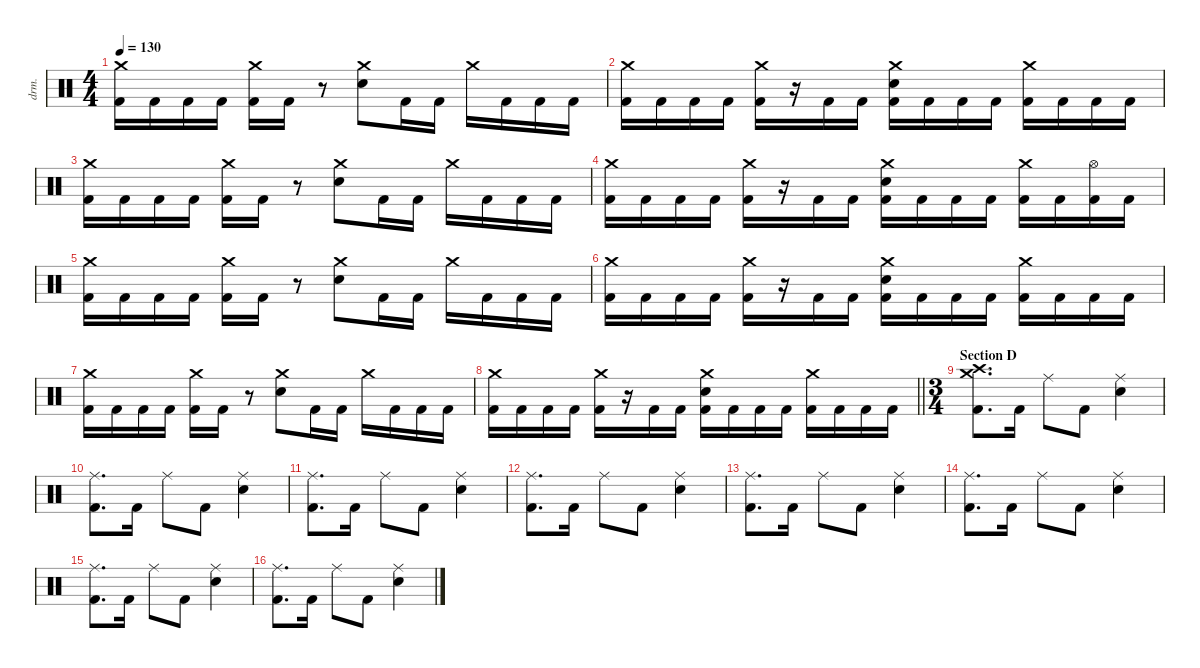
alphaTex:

\defaultSystemsLayout 4
\hideDynamics
\bracketExtendMode nobrackets
\otherSystemsTrackNameOrientation horizontal
\track ("Percussion" "drm.") {instrument percussion}
\staff {score}
\articulation defaults
\ts (4 4)
\tempo 130
\clef neutral
\ks c
("Crash medium (hit)" "Kick (hit) 2").16{dy f beam Down} "Kick (hit) 2".16{beam Down} "Kick (hit) 2".16{beam Down} "Kick (hit) 2".16{beam Down} ("Crash medium (hit)" "Kick (hit) 2").16{beam Down} "Kick (hit) 2".16{beam Down} r.8{beam Down} ("Crash medium (hit)" "Snare (hit) 2").8{beam Down} "Kick (hit) 2".16{beam Down} "Kick (hit) 2".16{beam Down} "Crash medium (hit)".16{beam Down} "Kick (hit) 2".16{beam Down} "Kick (hit) 2".16{beam Down} "Kick (hit) 2".16{beam Down} |
("Crash medium (hit)" "Kick (hit) 2").16{beam Down} "Kick (hit) 2".16{beam Down} "Kick (hit) 2".16{beam Down} "Kick (hit) 2".16{beam Down} ("Crash medium (hit)" "Kick (hit) 2").16{beam Down} r.16{beam Down} "Kick (hit) 2".16{beam Down} "Kick (hit) 2".16{beam Down} ("Crash medium (hit)" "Snare (hit) 2" "Kick (hit) 2").16{beam Down} "Kick (hit) 2".16{beam Down} "Kick (hit) 2".16{beam Down} "Kick (hit) 2".16{beam Down} ("Crash medium (hit)" "Kick (hit) 2").16{beam Down} "Kick (hit) 2".16{beam Down} "Kick (hit) 2".16{beam Down} "Kick (hit) 2".16{beam Down} |
("Crash medium (hit)" "Kick (hit) 2").16{beam Down} "Kick (hit) 2".16{beam Down} "Kick (hit) 2".16{beam Down} "Kick (hit) 2".16{beam Down} ("Crash medium (hit)" "Kick (hit) 2").16{beam Down} "Kick (hit) 2".16{beam Down} r.8{beam Down} ("Crash medium (hit)" "Snare (hit) 2").8{beam Down} "Kick (hit) 2".16{beam Down} "Kick (hit) 2".16{beam Down} "Crash medium (hit)".16{beam Down} "Kick (hit) 2".16{beam Down} "Kick (hit) 2".16{beam Down} "Kick (hit) 2".16{beam Down} |
("Crash medium (hit)" "Kick (hit) 2").16{beam Down} "Kick (hit) 2".16{beam Down} "Kick (hit) 2".16{beam Down} "Kick (hit) 2".16{beam Down} ("Crash medium (hit)" "Kick (hit) 2").16{beam Down} r.16{beam Down} "Kick (hit) 2".16{beam Down} "Kick (hit) 2".16{beam Down} ("Crash medium (hit)" "Snare (hit) 2" "Kick (hit) 2").16{beam Down} "Kick (hit) 2".16{beam Down} "Kick (hit) 2".16{beam Down} "Kick (hit) 2".16{beam Down} ("Crash medium (hit)" "Kick (hit) 2").16{beam Down} "Kick (hit) 2".16{beam Down} ("Hi-Hat (open)" "Kick (hit) 2").16{beam Down} "Kick (hit) 2".16{beam Down} |
("Crash medium (hit)" "Kick (hit) 2").16{beam Down} "Kick (hit) 2".16{beam Down} "Kick (hit) 2".16{beam Down} "Kick (hit) 2".16{beam Down} ("Crash medium (hit)" "Kick (hit) 2").16{beam Down} "Kick (hit) 2".16{beam Down} r.8{beam Down} ("Crash medium (hit)" "Snare (hit) 2").8{beam Down} "Kick (hit) 2".16{beam Down} "Kick (hit) 2".16{beam Down} "Crash medium (hit)".16{beam Down} "Kick (hit) 2".16{beam Down} "Kick (hit) 2".16{beam Down} "Kick (hit) 2".16{beam Down} |
("Crash medium (hit)" "Kick (hit) 2").16{beam Down} "Kick (hit) 2".16{beam Down} "Kick (hit) 2".16{beam Down} "Kick (hit) 2".16{beam Down} ("Crash medium (hit)" "Kick (hit) 2").16{beam Down} r.16{beam Down} "Kick (hit) 2".16{beam Down} "Kick (hit) 2".16{beam Down} ("Crash medium (hit)" "Snare (hit) 2" "Kick (hit) 2").16{beam Down} "Kick (hit) 2".16{beam Down} "Kick (hit) 2".16{beam Down} "Kick (hit) 2".16{beam Down} ("Crash medium (hit)" "Kick (hit) 2").16{beam Down} "Kick (hit) 2".16{beam Down} "Kick (hit) 2".16{beam Down} "Kick (hit) 2".16{beam Down} |
("Crash medium (hit)" "Kick (hit) 2").16{beam Down} "Kick (hit) 2".16{beam Down} "Kick (hit) 2".16{beam Down} "Kick (hit) 2".16{beam Down} ("Crash medium (hit)" "Kick (hit) 2").16{beam Down} "Kick (hit) 2".16{beam Down} r.8{beam Down} ("Crash medium (hit)" "Snare (hit) 2").8{beam Down} "Kick (hit) 2".16{beam Down} "Kick (hit) 2".16{beam Down} "Crash medium (hit)".16{beam Down} "Kick (hit) 2".16{beam Down} "Kick (hit) 2".16{beam Down} "Kick (hit) 2".16{beam Down} |
\barLineRight lightlight
("Crash medium (hit)" "Kick (hit) 2").16{beam Down} "Kick (hit) 2".16{beam Down} "Kick (hit) 2".16{beam Down} "Kick (hit) 2".16{beam Down} ("Crash medium (hit)" "Kick (hit) 2").16{beam Down} r.16{beam Down} "Kick (hit) 2".16{beam Down} "Kick (hit) 2".16{beam Down} ("Crash medium (hit)" "Snare (hit) 2" "Kick (hit) 2").16{beam Down} "Kick (hit) 2".16{beam Down} "Kick (hit) 2".16{beam Down} "Kick (hit) 2".16{beam Down} ("Crash medium (hit)" "Kick (hit) 2").16{beam Down} "Kick (hit) 2".16{beam Down} "Kick (hit) 2".16{beam Down} "Kick (hit) 2".16{beam Down} |
\ts (3 4)
\beaming (8 2 2 2)
\section ("" "Section D")
("Crash medium (hit)" "Crash high (hit)" "Kick (hit) 2").8{d beam Down} "Kick (hit) 2".16{beam Down} "Ride (middle)".8{beam Down} "Kick (hit) 2".8{beam Down} ("Ride (middle)" "Snare (hit) 2").4{beam Down} |
("Ride (middle)" "Kick (hit) 2").8{d beam Down} "Kick (hit) 2".16{beam Down} "Ride (middle)".8{beam Down} "Kick (hit) 2".8{beam Down} ("Ride (middle)" "Snare (hit) 2").4{beam Down} |
("Ride (middle)" "Kick (hit) 2").8{d beam Down} "Kick (hit) 2".16{beam Down} "Ride (middle)".8{beam Down} "Kick (hit) 2".8{beam Down} ("Ride (middle)" "Snare (hit) 2").4{beam Down} |
("Ride (middle)" "Kick (hit) 2").8{d beam Down} "Kick (hit) 2".16{beam Down} "Ride (middle)".8{beam Down} "Kick (hit) 2".8{beam Down} ("Ride (middle)" "Snare (hit) 2").4{beam Down} |
("Ride (middle)" "Kick (hit) 2").8{d beam Down} "Kick (hit) 2".16{beam Down} "Ride (middle)".8{beam Down} "Kick (hit) 2".8{beam Down} ("Ride (middle)" "Snare (hit) 2").4{beam Down} |
("Ride (middle)" "Kick (hit) 2").8{d beam Down} "Kick (hit) 2".16{beam Down} "Ride (middle)".8{beam Down} "Kick (hit) 2".8{beam Down} ("Ride (middle)" "Snare (hit) 2").4{beam Down} |
("Ride (middle)" "Kick (hit) 2").8{d beam Down} "Kick (hit) 2".16{beam Down} "Ride (middle)".8{beam Down} "Kick (hit) 2".8{beam Down} ("Ride (middle)" "Snare (hit) 2").4{beam Down} |
("Ride (middle)" "Kick (hit) 2").8{d beam Down} "Kick (hit) 2".16{beam Down} "Ride (middle)".8{beam Down} "Kick (hit) 2".8{beam Down} ("Ride (middle)" "Snare (hit) 2").4{beam Down}
